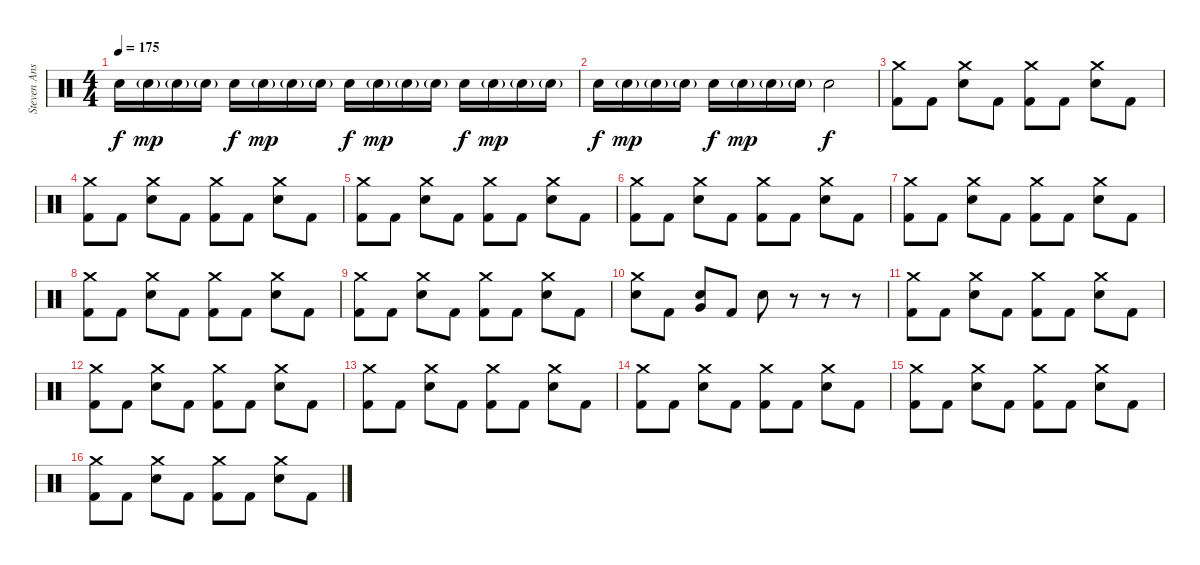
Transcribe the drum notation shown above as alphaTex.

\track ("Steven Ansell" "Steven Ans") {instrument percussion}
\staff {score}
\articulation defaults
\ts (4 4)
\tempo 175
\clef neutral
\ks c "Electric Snare (hit)".16{dy f} "Electric Snare (hit)"{g}.16{dy mp} "Electric Snare (hit)"{g}.16 "Electric Snare (hit)"{g}.16 "Electric Snare (hit)".16{dy f} "Electric Snare (hit)"{g}.16{dy mp} "Electric Snare (hit)"{g}.16 "Electric Snare (hit)"{g}.16 "Electric Snare (hit)".16{dy f} "Electric Snare (hit)"{g}.16{dy mp} "Electric Snare (hit)"{g}.16 "Electric Snare (hit)"{g}.16 "Electric Snare (hit)".16{dy f} "Electric Snare (hit)"{g}.16{dy mp} "Electric Snare (hit)"{g}.16 "Electric Snare (hit)"{g}.16
|
"Electric Snare (hit)".16{dy f} "Electric Snare (hit)"{g}.16{dy mp} "Electric Snare (hit)"{g}.16 "Electric Snare (hit)"{g}.16 "Electric Snare (hit)".16{dy f} "Electric Snare (hit)"{g}.16{dy mp} "Electric Snare (hit)"{g}.16 "Electric Snare (hit)"{g}.16 "Electric Snare (hit)".2{dy f} |
("Crash medium (hit)" "Kick (hit) 2").8 "Kick (hit) 2".8 ("Crash medium (hit)" "Electric Snare (hit)").8 "Kick (hit) 2".8 ("Crash medium (hit)" "Kick (hit) 2").8 "Kick (hit) 2".8 ("Crash medium (hit)" "Electric Snare (hit)").8 "Kick (hit) 2".8 |
("Crash medium (hit)" "Kick (hit) 2").8 "Kick (hit) 2".8 ("Crash medium (hit)" "Electric Snare (hit)").8 "Kick (hit) 2".8 ("Crash medium (hit)" "Kick (hit) 2").8 "Kick (hit) 2".8 ("Crash medium (hit)" "Electric Snare (hit)").8 "Kick (hit) 2".8 |
("Crash medium (hit)" "Kick (hit) 2").8 "Kick (hit) 2".8 ("Crash medium (hit)" "Electric Snare (hit)").8 "Kick (hit) 2".8 ("Crash medium (hit)" "Kick (hit) 2").8 "Kick (hit) 2".8 ("Crash medium (hit)" "Electric Snare (hit)").8 "Kick (hit) 2".8 |
("Crash medium (hit)" "Kick (hit) 2").8 "Kick (hit) 2".8 ("Crash medium (hit)" "Electric Snare (hit)").8 "Kick (hit) 2".8 ("Crash medium (hit)" "Kick (hit) 2").8 "Kick (hit) 2".8 ("Crash medium (hit)" "Electric Snare (hit)").8 "Kick (hit) 2".8 |
("Crash medium (hit)" "Kick (hit) 2").8 "Kick (hit) 2".8 ("Crash medium (hit)" "Electric Snare (hit)").8 "Kick (hit) 2".8 ("Crash medium (hit)" "Kick (hit) 2").8 "Kick (hit) 2".8 ("Crash medium (hit)" "Electric Snare (hit)").8 "Kick (hit) 2".8 |
("Crash medium (hit)" "Kick (hit) 2").8 "Kick (hit) 2".8 ("Crash medium (hit)" "Electric Snare (hit)").8 "Kick (hit) 2".8 ("Crash medium (hit)" "Kick (hit) 2").8 "Kick (hit) 2".8 ("Crash medium (hit)" "Electric Snare (hit)").8 "Kick (hit) 2".8 |
("Crash medium (hit)" "Kick (hit) 2").8 "Kick (hit) 2".8 ("Crash medium (hit)" "Electric Snare (hit)").8 "Kick (hit) 2".8 ("Crash medium (hit)" "Kick (hit) 2").8 "Kick (hit) 2".8 ("Crash medium (hit)" "Electric Snare (hit)").8 "Kick (hit) 2".8 |
("Crash medium (hit)" "Electric Snare (hit)").8 "Kick (hit) 2".8 ("Electric Snare (hit)" "Very Low Tom (hit)").8 "Kick (hit) 2".8 "Electric Snare (hit)".8 r.8 r.8 r.8 |
("Crash medium (hit)" "Kick (hit) 2").8 "Kick (hit) 2".8 ("Crash medium (hit)" "Electric Snare (hit)").8 "Kick (hit) 2".8 ("Crash medium (hit)" "Kick (hit) 2").8 "Kick (hit) 2".8 ("Crash medium (hit)" "Electric Snare (hit)").8 "Kick (hit) 2".8 |
("Crash medium (hit)" "Kick (hit) 2").8 "Kick (hit) 2".8 ("Crash medium (hit)" "Electric Snare (hit)").8 "Kick (hit) 2".8 ("Crash medium (hit)" "Kick (hit) 2").8 "Kick (hit) 2".8 ("Crash medium (hit)" "Electric Snare (hit)").8 "Kick (hit) 2".8 |
("Crash medium (hit)" "Kick (hit) 2").8 "Kick (hit) 2".8 ("Crash medium (hit)" "Electric Snare (hit)").8 "Kick (hit) 2".8 ("Crash medium (hit)" "Kick (hit) 2").8 "Kick (hit) 2".8 ("Crash medium (hit)" "Electric Snare (hit)").8 "Kick (hit) 2".8 |
("Crash medium (hit)" "Kick (hit) 2").8 "Kick (hit) 2".8 ("Crash medium (hit)" "Electric Snare (hit)").8 "Kick (hit) 2".8 ("Crash medium (hit)" "Kick (hit) 2").8 "Kick (hit) 2".8 ("Crash medium (hit)" "Electric Snare (hit)").8 "Kick (hit) 2".8 |
("Crash medium (hit)" "Kick (hit) 2").8 "Kick (hit) 2".8 ("Crash medium (hit)" "Electric Snare (hit)").8 "Kick (hit) 2".8 ("Crash medium (hit)" "Kick (hit) 2").8 "Kick (hit) 2".8 ("Crash medium (hit)" "Electric Snare (hit)").8 "Kick (hit) 2".8 |
("Crash medium (hit)" "Kick (hit) 2").8 "Kick (hit) 2".8 ("Crash medium (hit)" "Electric Snare (hit)").8 "Kick (hit) 2".8 ("Crash medium (hit)" "Kick (hit) 2").8 "Kick (hit) 2".8 ("Crash medium (hit)" "Electric Snare (hit)").8 "Kick (hit) 2".8
